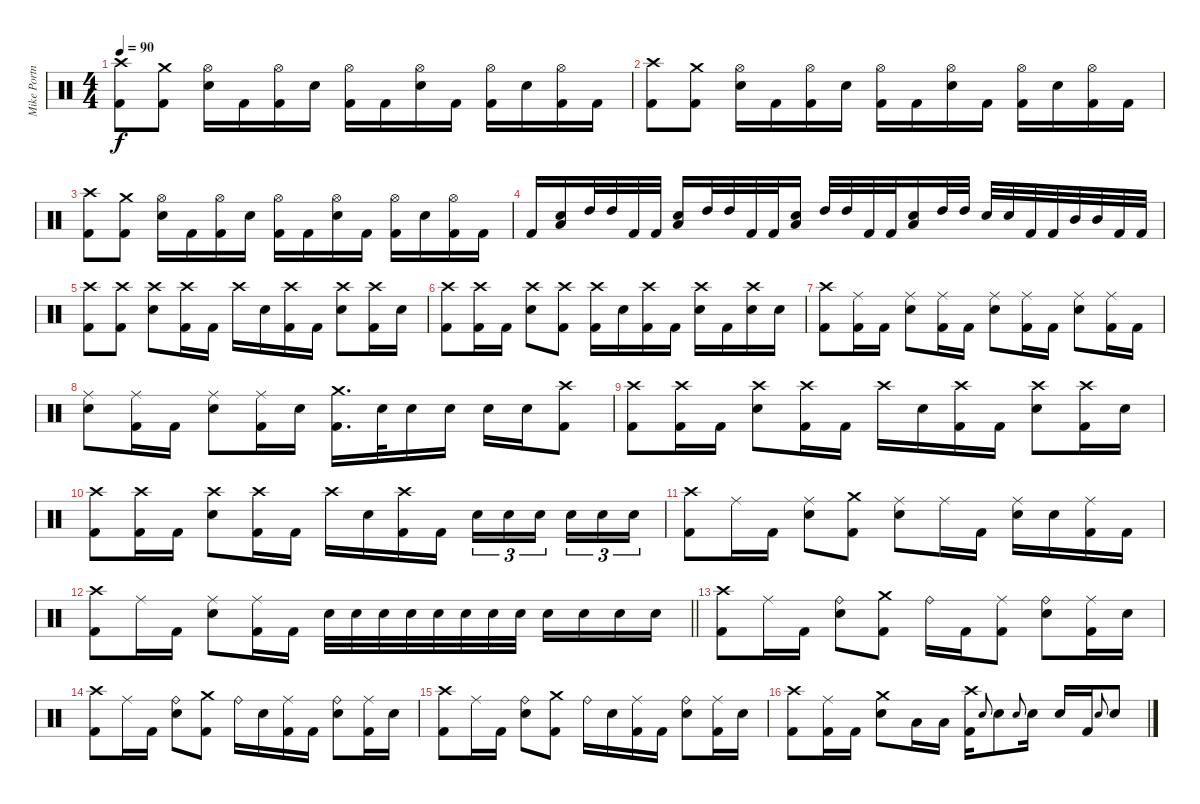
\track ("Mike Portnoy" "Mike Portn") {instrument percussion}
\staff {score}
\articulation defaults
\ts (4 4)
\tempo 90
\clef neutral
\ks c
("Crash high (hit)" "Kick (hit) 2").8{dy f} ("Crash medium (hit)" "Kick (hit) 2").8 ("Hi-Hat (open)" "Snare (hit) 2").16 "Kick (hit) 2".16 ("Hi-Hat (open)" "Kick (hit) 2").16 "Snare (hit) 2".16 ("Hi-Hat (open)" "Kick (hit) 2").16 "Kick (hit) 2".16 ("Hi-Hat (open)" "Snare (hit) 2").16 "Kick (hit) 2".16 ("Hi-Hat (open)" "Kick (hit) 2").16 "Snare (hit) 2".16 ("Hi-Hat (open)" "Kick (hit) 2").16 "Kick (hit) 2".16 |
("Crash high (hit)" "Kick (hit) 2").8 ("Crash medium (hit)" "Kick (hit) 2").8 ("Hi-Hat (open)" "Snare (hit) 2").16 "Kick (hit) 2".16 ("Hi-Hat (open)" "Kick (hit) 2").16 "Snare (hit) 2".16 ("Hi-Hat (open)" "Kick (hit) 2").16 "Kick (hit) 2".16 ("Hi-Hat (open)" "Snare (hit) 2").16 "Kick (hit) 2".16 ("Hi-Hat (open)" "Kick (hit) 2").16 "Snare (hit) 2".16 ("Hi-Hat (open)" "Kick (hit) 2").16 "Kick (hit) 2".16 |
("Crash high (hit)" "Kick (hit) 2").8 ("Crash medium (hit)" "Kick (hit) 2").8 ("Hi-Hat (open)" "Snare (hit) 2").16 "Kick (hit) 2".16 ("Hi-Hat (open)" "Kick (hit) 2").16 "Snare (hit) 2".16 ("Hi-Hat (open)" "Kick (hit) 2").16 "Kick (hit) 2".16 ("Hi-Hat (open)" "Snare (hit) 2").16 "Kick (hit) 2".16 ("Hi-Hat (open)" "Kick (hit) 2").16 "Snare (hit) 2".16 ("Hi-Hat (open)" "Kick (hit) 2").16 "Kick (hit) 2".16 |
"Kick (hit) 2".16 ("Snare (hit) 2" "Low Tom (hit)").16 "High Tom (hit)".32 "High Tom (hit)".32 "Kick (hit) 2".32 "Kick (hit) 2".32 ("Snare (hit) 2" "Low Tom (hit)").16 "High Tom (hit)".32 "High Tom (hit)".32 "Kick (hit) 2".32 "Kick (hit) 2".32 ("Snare (hit) 2" "Low Tom (hit)").16 "High Tom (hit)".32 "High Tom (hit)".32 "Kick (hit) 2".32 "Kick (hit) 2".32 ("Snare (hit) 2" "Low Tom (hit)").16 "High Tom (hit)".32 "High Tom (hit)".32 "Snare (hit) 2".32 "Snare (hit) 2".32 "Kick (hit) 2".32 "Kick (hit) 2".32 "Mid Tom (hit)".32 "Mid Tom (hit)".32 "Kick (hit) 2".32 "Kick (hit) 2".32 |
("Crash high (hit)" "Kick (hit) 2").8 ("Crash high (hit)" "Kick (hit) 2").8 ("Crash high (hit)" "Snare (hit) 2").8 ("Crash high (hit)" "Kick (hit) 2").16 "Kick (hit) 2".16 "Crash high (hit)".16 "Snare (hit) 2".16 ("Crash high (hit)" "Kick (hit) 2").16 "Kick (hit) 2".16 ("Crash high (hit)" "Snare (hit) 2").8 ("Crash high (hit)" "Kick (hit) 2").16 "Snare (hit) 2".16 |
("Crash high (hit)" "Kick (hit) 2").8 ("Crash high (hit)" "Kick (hit) 2").16 "Kick (hit) 2".16 ("Crash high (hit)" "Snare (hit) 2").8 ("Crash high (hit)" "Kick (hit) 2").8 ("Crash high (hit)" "Kick (hit) 2").16 "Snare (hit) 2".16 ("Crash high (hit)" "Kick (hit) 2").16 "Kick (hit) 2".16 ("Crash high (hit)" "Snare (hit) 2").16 "Kick (hit) 2".16 ("Crash high (hit)" "Snare (hit) 2").16 "Snare (hit) 2".16 |
("Crash high (hit)" "Kick (hit) 2").8 ("Ride (middle)" "Kick (hit) 2").16 "Kick (hit) 2".16 ("Ride (middle)" "Snare (hit) 2").8 ("Ride (middle)" "Kick (hit) 2").16 "Kick (hit) 2".16 ("Ride (middle)" "Snare (hit) 2").8 ("Ride (middle)" "Kick (hit) 2").16 "Kick (hit) 2".16 ("Ride (middle)" "Snare (hit) 2").8 ("Ride (middle)" "Kick (hit) 2").16 "Kick (hit) 2".16 |
("Ride (middle)" "Snare (hit) 2").8 ("Ride (middle)" "Kick (hit) 2").16 "Kick (hit) 2".16 ("Ride (middle)" "Snare (hit) 2").8 ("Ride (middle)" "Kick (hit) 2").16 "Snare (hit) 2".16 ("Crash medium (hit)" "Kick (hit) 2").16{d} "Snare (hit) 2".32 "Snare (hit) 2".16 "Snare (hit) 2".16 "Snare (hit) 2".16 "Snare (hit) 2".16 ("Crash high (hit)" "Kick (hit) 2").8 |
("Crash high (hit)" "Kick (hit) 2").8 ("Crash high (hit)" "Kick (hit) 2").16 "Kick (hit) 2".16 ("Crash high (hit)" "Snare (hit) 2").8 ("Crash high (hit)" "Kick (hit) 2").16 "Kick (hit) 2".16 "Crash high (hit)".16 "Snare (hit) 2".16 ("Crash high (hit)" "Kick (hit) 2").16 "Kick (hit) 2".16 ("Crash high (hit)" "Snare (hit) 2").8 ("Crash high (hit)" "Kick (hit) 2").16 "Snare (hit) 2".16 |
("Crash high (hit)" "Kick (hit) 2").8 ("Crash high (hit)" "Kick (hit) 2").16 "Kick (hit) 2".16 ("Crash high (hit)" "Snare (hit) 2").8 ("Crash high (hit)" "Kick (hit) 2").16 "Kick (hit) 2".16 "Crash high (hit)".16 "Snare (hit) 2".16 ("Crash high (hit)" "Kick (hit) 2").16 "Kick (hit) 2".16 "Snare (hit) 2".16{tu (3 2)} "Snare (hit) 2".16{tu (3 2)} "Snare (hit) 2".16{tu (3 2) beam splitsecondary} "Snare (hit) 2".16{tu (3 2)} "Snare (hit) 2".16{tu (3 2)} "Snare (hit) 2".16{tu (3 2)} |
("Crash high (hit)" "Kick (hit) 2").8 "Ride (middle)".16 "Kick (hit) 2".16 ("Ride (middle)" "Snare (hit) 2").8 ("Crash medium (hit)" "Kick (hit) 2").8 ("Ride (middle)" "Snare (hit) 2").8 "Ride (middle)".16 "Kick (hit) 2".16 ("Ride (middle)" "Snare (hit) 2").16 "Snare (hit) 2".16 ("Ride (middle)" "Kick (hit) 2").16 "Kick (hit) 2".16 |
\barLineRight lightlight
("Crash high (hit)" "Kick (hit) 2").8 "Ride (middle)".16 "Kick (hit) 2".16 ("Ride (middle)" "Snare (hit) 2").8 ("Ride (middle)" "Kick (hit) 2").16 "Kick (hit) 2".16 "Snare (hit) 2".32 "Snare (hit) 2".32 "Snare (hit) 2".32 "Snare (hit) 2".32 "Snare (hit) 2".32 "Snare (hit) 2".32 "Snare (hit) 2".32 "Snare (hit) 2".32 "Snare (hit) 2".16 "Snare (hit) 2".16 "Snare (hit) 2".16 "Snare (hit) 2".16 |
("Crash high (hit)" "Kick (hit) 2").8 "Ride (middle)".16 "Kick (hit) 2".16 ("Ride (bell)" "Snare (hit) 2").8 ("Crash medium (hit)" "Kick (hit) 2").8 "Ride (bell)".16 "Kick (hit) 2".16 ("Ride (middle)" "Kick (hit) 2").8 ("Ride (bell)" "Snare (hit) 2").8 ("Ride (middle)" "Kick (hit) 2").16 "Snare (hit) 2".16 |
("Crash high (hit)" "Kick (hit) 2").8 "Ride (middle)".16 "Kick (hit) 2".16 ("Ride (bell)" "Snare (hit) 2").8 ("Crash medium (hit)" "Kick (hit) 2").8 "Ride (bell)".16 "Snare (hit) 2".16 ("Ride (middle)" "Kick (hit) 2").16 "Kick (hit) 2".16 ("Ride (bell)" "Snare (hit) 2").8 ("Ride (middle)" "Kick (hit) 2").16 "Snare (hit) 2".16 |
("Crash high (hit)" "Kick (hit) 2").8 "Ride (middle)".16 "Kick (hit) 2".16 ("Ride (bell)" "Snare (hit) 2").8 ("Crash medium (hit)" "Kick (hit) 2").8 "Ride (bell)".16 "Snare (hit) 2".16 ("Ride (middle)" "Kick (hit) 2").16 "Kick (hit) 2".16 ("Ride (bell)" "Snare (hit) 2").8 ("Ride (middle)" "Kick (hit) 2").16 "Snare (hit) 2".16 |
("Crash high (hit)" "Kick (hit) 2").8 ("Ride (middle)" "Kick (hit) 2").16 "Kick (hit) 2".16 ("Crash medium (hit)" "Snare (hit) 2").8 "Low Tom (hit)".16 "Low Tom (hit)".16 ("Crash high (hit)" "Kick (hit) 2").16 "Snare (hit) 2".8{gr onbeat} "Snare (hit) 2".8 "Snare (hit) 2".8{gr onbeat} "Snare (hit) 2".16 "Snare (hit) 2".16 "Kick (hit) 2".16 "Snare (hit) 2".8{gr onbeat} "Snare (hit) 2".8
